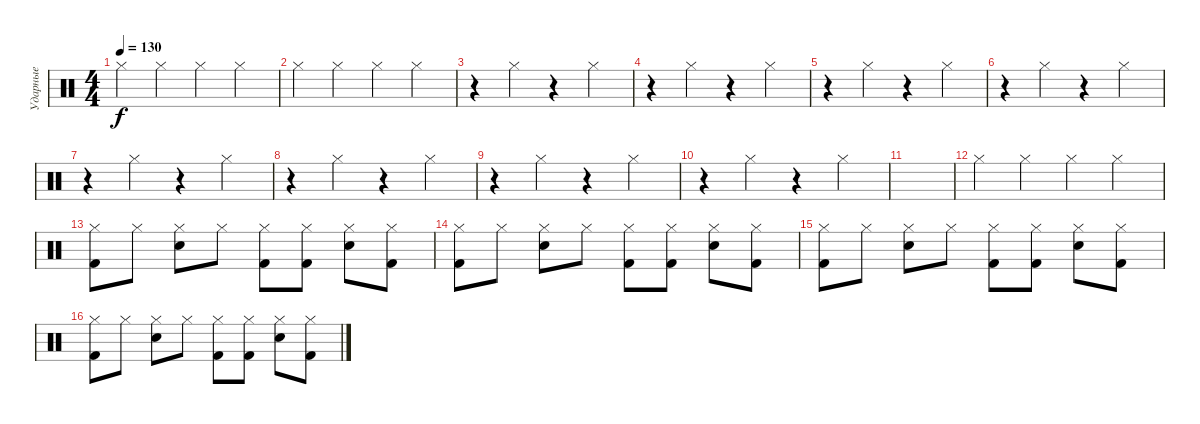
\track ("Ударные" "Ударные") {instrument percussion}
\staff {score}
\articulation defaults
\ts (4 4)
\tempo 130
\clef neutral
\ks c "Hi-Hat (closed)".4{dy f} "Hi-Hat (closed)".4 "Hi-Hat (closed)".4 "Hi-Hat (closed)".4
|
"Hi-Hat (closed)".4 "Hi-Hat (closed)".4 "Hi-Hat (closed)".4 "Hi-Hat (closed)".4 |
r.4 "Hi-Hat (closed)".4 r.4 "Hi-Hat (closed)".4 |
r.4 "Hi-Hat (closed)".4 r.4 "Hi-Hat (closed)".4 |
r.4 "Hi-Hat (closed)".4 r.4 "Hi-Hat (closed)".4 |
r.4 "Hi-Hat (closed)".4 r.4 "Hi-Hat (closed)".4 |
r.4 "Hi-Hat (closed)".4 r.4 "Hi-Hat (closed)".4 |
r.4 "Hi-Hat (closed)".4 r.4 "Hi-Hat (closed)".4 |
r.4 "Hi-Hat (closed)".4 r.4 "Hi-Hat (closed)".4 |
r.4 "Hi-Hat (closed)".4 r.4 "Hi-Hat (closed)".4 |
|
"Hi-Hat (closed)".4 "Hi-Hat (closed)".4 "Hi-Hat (closed)".4 "Hi-Hat (closed)".4 |
("Hi-Hat (closed)" "Kick (hit) 2").8 "Hi-Hat (closed)".8 ("Hi-Hat (closed)" "Snare (hit) 2").8 "Hi-Hat (closed)".8 ("Hi-Hat (closed)" "Kick (hit) 2").8 ("Hi-Hat (closed)" "Kick (hit) 2").8 ("Hi-Hat (closed)" "Snare (hit) 2").8 ("Hi-Hat (closed)" "Kick (hit) 2").8 |
("Hi-Hat (closed)" "Kick (hit) 2").8 "Hi-Hat (closed)".8 ("Hi-Hat (closed)" "Snare (hit) 2").8 "Hi-Hat (closed)".8 ("Hi-Hat (closed)" "Kick (hit) 2").8 ("Hi-Hat (closed)" "Kick (hit) 2").8 ("Hi-Hat (closed)" "Snare (hit) 2").8 ("Hi-Hat (closed)" "Kick (hit) 2").8 |
("Hi-Hat (closed)" "Kick (hit) 2").8 "Hi-Hat (closed)".8 ("Hi-Hat (closed)" "Snare (hit) 2").8 "Hi-Hat (closed)".8 ("Hi-Hat (closed)" "Kick (hit) 2").8 ("Hi-Hat (closed)" "Kick (hit) 2").8 ("Hi-Hat (closed)" "Snare (hit) 2").8 ("Hi-Hat (closed)" "Kick (hit) 2").8 |
("Hi-Hat (closed)" "Kick (hit) 2").8 "Hi-Hat (closed)".8 ("Hi-Hat (closed)" "Snare (hit) 2").8 "Hi-Hat (closed)".8 ("Hi-Hat (closed)" "Kick (hit) 2").8 ("Hi-Hat (closed)" "Kick (hit) 2").8 ("Hi-Hat (closed)" "Snare (hit) 2").8 ("Hi-Hat (closed)" "Kick (hit) 2").8
